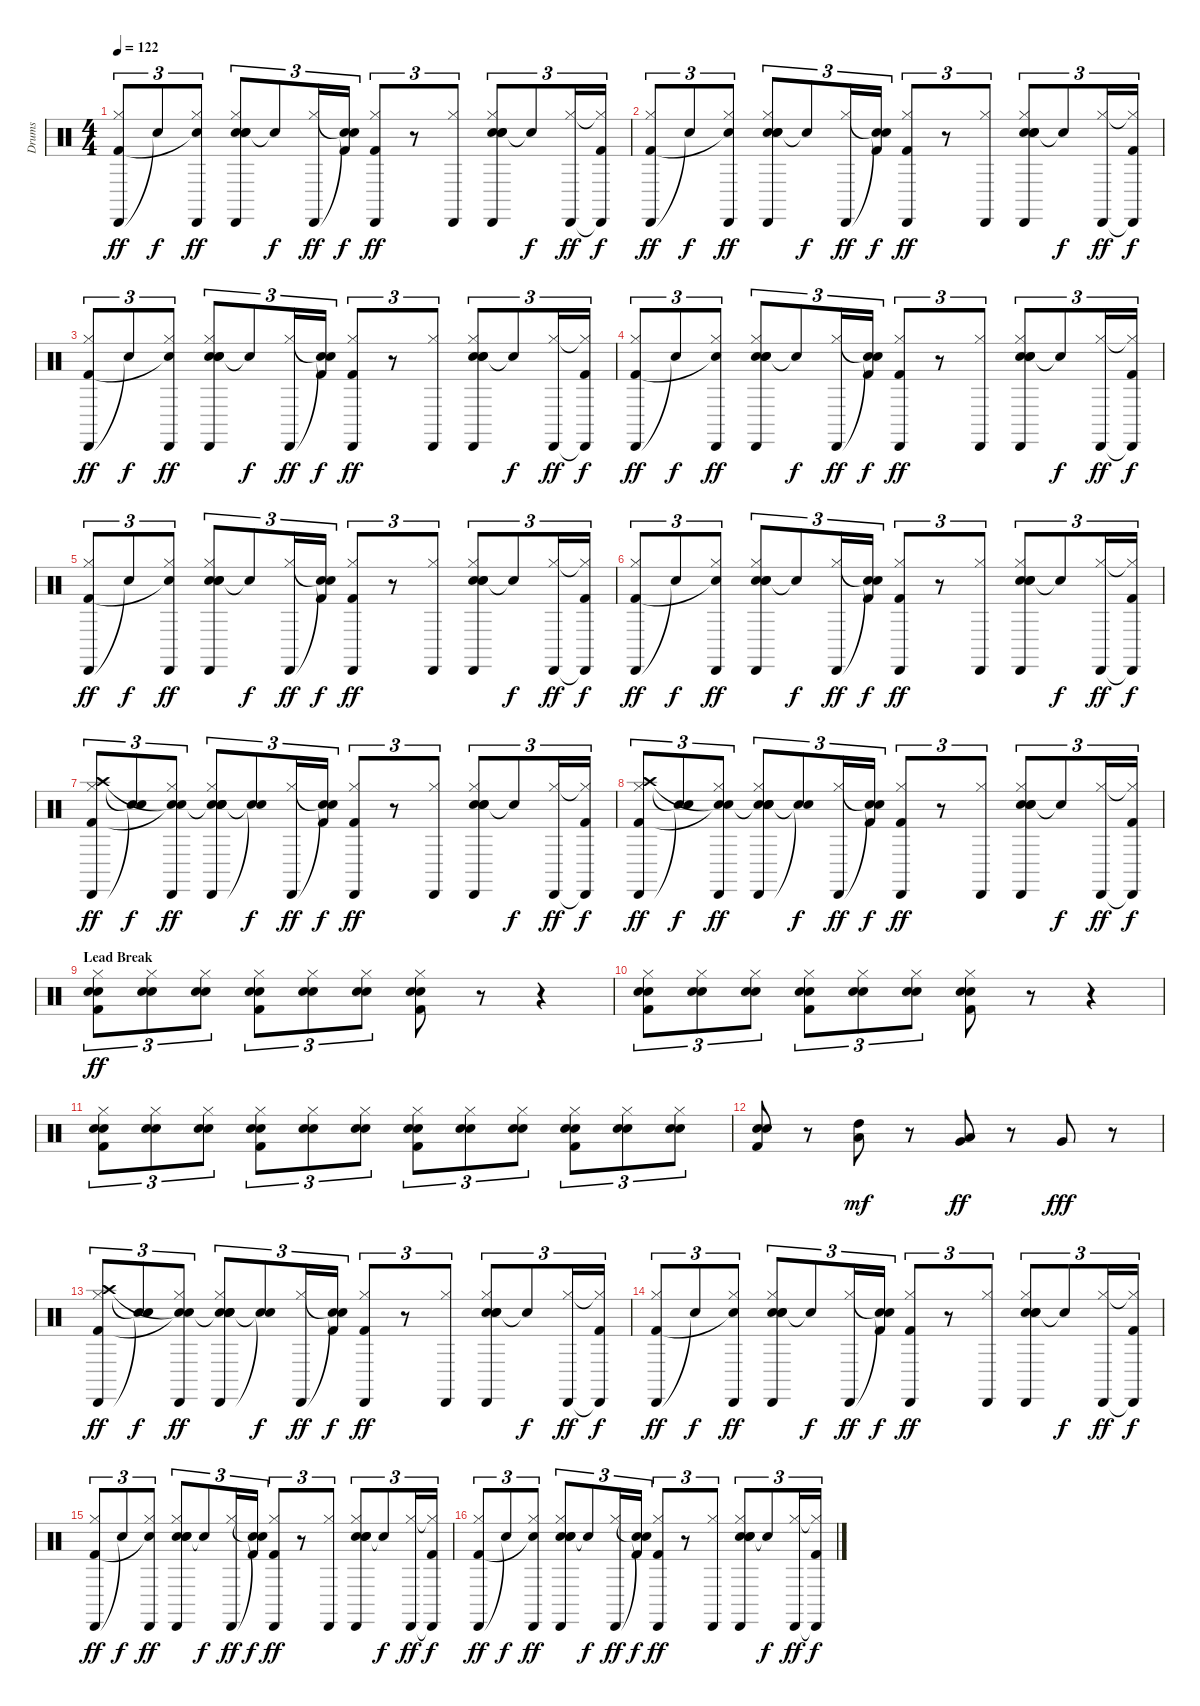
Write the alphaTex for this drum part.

\track ("Drums" "Drums") {instrument percussion}
\staff {score}
\articulation defaults
\ts (4 4)
\tempo 122
\clef neutral
\ks c
("Cabasa (hit)" "Hi-Hat (closed)" "Kick (hit) 2").8{tu (3 2) dy ff} "Snare (hit)"{t}.8{tu (3 2) dy f} ("Cabasa (hit)" "Hi-Hat (closed)" "Snare (hit)"{t}).8{tu (3 2) dy ff} ("Hand Clap (hit)" "Cabasa (hit)" "Hi-Hat (closed)" "Snare (hit) 2" "Hand Clap (hit)").8{tu (3 2)} "Snare (hit)"{t}.8{tu (3 2) dy f} ("Cabasa (hit)" "Hi-Hat (closed)").16{tu (3 2) dy ff} ("Snare (hit)"{t} "Snare (hit)"{t} "Kick (hit) 2").16{tu (3 2) dy f} ("Cabasa (hit)" "Hi-Hat (closed)" "Kick (hit) 2").8{tu (3 2) dy ff} r.8{tu (3 2)} ("Cabasa (hit)" "Hi-Hat (closed)").8{tu (3 2)} ("Hand Clap (hit)" "Cabasa (hit)" "Hi-Hat (closed)" "Snare (hit) 2" "Hand Clap (hit)").8{tu (3 2)} "Snare (hit)"{t}.8{tu (3 2) dy f} ("Cabasa (hit)" "Hi-Hat (closed)").16{tu (3 2) dy ff} ("Cabasa (hit)"{t} "Hi-Hat (closed)"{t} "Kick (hit) 2").16{tu (3 2) dy f} |
("Cabasa (hit)" "Hi-Hat (closed)" "Kick (hit) 2").8{tu (3 2) dy ff} "Snare (hit)"{t}.8{tu (3 2) dy f} ("Cabasa (hit)" "Hi-Hat (closed)" "Snare (hit)"{t}).8{tu (3 2) dy ff} ("Hand Clap (hit)" "Cabasa (hit)" "Hi-Hat (closed)" "Snare (hit) 2" "Hand Clap (hit)").8{tu (3 2)} "Snare (hit)"{t}.8{tu (3 2) dy f} ("Cabasa (hit)" "Hi-Hat (closed)").16{tu (3 2) dy ff} ("Snare (hit)"{t} "Snare (hit)"{t} "Kick (hit) 2").16{tu (3 2) dy f} ("Cabasa (hit)" "Hi-Hat (closed)" "Kick (hit) 2").8{tu (3 2) dy ff} r.8{tu (3 2)} ("Cabasa (hit)" "Hi-Hat (closed)").8{tu (3 2)} ("Hand Clap (hit)" "Cabasa (hit)" "Hi-Hat (closed)" "Snare (hit) 2" "Hand Clap (hit)").8{tu (3 2)} "Snare (hit)"{t}.8{tu (3 2) dy f} ("Cabasa (hit)" "Hi-Hat (closed)").16{tu (3 2) dy ff} ("Cabasa (hit)"{t} "Hi-Hat (closed)"{t} "Kick (hit) 2").16{tu (3 2) dy f} |
("Cabasa (hit)" "Hi-Hat (closed)" "Kick (hit) 2").8{tu (3 2) dy ff} "Snare (hit)"{t}.8{tu (3 2) dy f} ("Cabasa (hit)" "Hi-Hat (closed)" "Snare (hit)"{t}).8{tu (3 2) dy ff} ("Hand Clap (hit)" "Cabasa (hit)" "Hi-Hat (closed)" "Snare (hit) 2" "Hand Clap (hit)").8{tu (3 2)} "Snare (hit)"{t}.8{tu (3 2) dy f} ("Cabasa (hit)" "Hi-Hat (closed)").16{tu (3 2) dy ff} ("Snare (hit)"{t} "Snare (hit)"{t} "Kick (hit) 2").16{tu (3 2) dy f} ("Cabasa (hit)" "Hi-Hat (closed)" "Kick (hit) 2").8{tu (3 2) dy ff} r.8{tu (3 2)} ("Cabasa (hit)" "Hi-Hat (closed)").8{tu (3 2)} ("Hand Clap (hit)" "Cabasa (hit)" "Hi-Hat (closed)" "Snare (hit) 2" "Hand Clap (hit)").8{tu (3 2)} "Snare (hit)"{t}.8{tu (3 2) dy f} ("Cabasa (hit)" "Hi-Hat (closed)").16{tu (3 2) dy ff} ("Cabasa (hit)"{t} "Hi-Hat (closed)"{t} "Kick (hit) 2").16{tu (3 2) dy f} |
("Cabasa (hit)" "Hi-Hat (closed)" "Kick (hit) 2").8{tu (3 2) dy ff} "Snare (hit)"{t}.8{tu (3 2) dy f} ("Cabasa (hit)" "Hi-Hat (closed)" "Snare (hit)"{t}).8{tu (3 2) dy ff} ("Hand Clap (hit)" "Cabasa (hit)" "Hi-Hat (closed)" "Snare (hit) 2" "Hand Clap (hit)").8{tu (3 2)} "Snare (hit)"{t}.8{tu (3 2) dy f} ("Cabasa (hit)" "Hi-Hat (closed)").16{tu (3 2) dy ff} ("Snare (hit)"{t} "Snare (hit)"{t} "Kick (hit) 2").16{tu (3 2) dy f} ("Cabasa (hit)" "Hi-Hat (closed)" "Kick (hit) 2").8{tu (3 2) dy ff} r.8{tu (3 2)} ("Cabasa (hit)" "Hi-Hat (closed)").8{tu (3 2)} ("Hand Clap (hit)" "Cabasa (hit)" "Hi-Hat (closed)" "Snare (hit) 2" "Hand Clap (hit)").8{tu (3 2)} "Snare (hit)"{t}.8{tu (3 2) dy f} ("Cabasa (hit)" "Hi-Hat (closed)").16{tu (3 2) dy ff} ("Cabasa (hit)"{t} "Hi-Hat (closed)"{t} "Kick (hit) 2").16{tu (3 2) dy f} |
("Cabasa (hit)" "Hi-Hat (closed)" "Kick (hit) 2").8{tu (3 2) dy ff} "Snare (hit)"{t}.8{tu (3 2) dy f} ("Cabasa (hit)" "Hi-Hat (closed)" "Snare (hit)"{t}).8{tu (3 2) dy ff} ("Hand Clap (hit)" "Cabasa (hit)" "Hi-Hat (closed)" "Snare (hit) 2" "Hand Clap (hit)").8{tu (3 2)} "Snare (hit)"{t}.8{tu (3 2) dy f} ("Cabasa (hit)" "Hi-Hat (closed)").16{tu (3 2) dy ff} ("Snare (hit)"{t} "Snare (hit)"{t} "Kick (hit) 2").16{tu (3 2) dy f} ("Cabasa (hit)" "Hi-Hat (closed)" "Kick (hit) 2").8{tu (3 2) dy ff} r.8{tu (3 2)} ("Cabasa (hit)" "Hi-Hat (closed)").8{tu (3 2)} ("Hand Clap (hit)" "Cabasa (hit)" "Hi-Hat (closed)" "Snare (hit) 2" "Hand Clap (hit)").8{tu (3 2)} "Snare (hit)"{t}.8{tu (3 2) dy f} ("Cabasa (hit)" "Hi-Hat (closed)").16{tu (3 2) dy ff} ("Cabasa (hit)"{t} "Hi-Hat (closed)"{t} "Kick (hit) 2").16{tu (3 2) dy f} |
("Cabasa (hit)" "Hi-Hat (closed)" "Kick (hit) 2").8{tu (3 2) dy ff} "Snare (hit)"{t}.8{tu (3 2) dy f} ("Cabasa (hit)" "Hi-Hat (closed)" "Snare (hit)"{t}).8{tu (3 2) dy ff} ("Hand Clap (hit)" "Cabasa (hit)" "Hi-Hat (closed)" "Snare (hit) 2" "Hand Clap (hit)").8{tu (3 2)} "Snare (hit)"{t}.8{tu (3 2) dy f} ("Cabasa (hit)" "Hi-Hat (closed)").16{tu (3 2) dy ff} ("Snare (hit)"{t} "Snare (hit)"{t} "Kick (hit) 2").16{tu (3 2) dy f} ("Cabasa (hit)" "Hi-Hat (closed)" "Kick (hit) 2").8{tu (3 2) dy ff} r.8{tu (3 2)} ("Cabasa (hit)" "Hi-Hat (closed)").8{tu (3 2)} ("Hand Clap (hit)" "Cabasa (hit)" "Hi-Hat (closed)" "Snare (hit) 2" "Hand Clap (hit)").8{tu (3 2)} "Snare (hit)"{t}.8{tu (3 2) dy f} ("Cabasa (hit)" "Hi-Hat (closed)").16{tu (3 2) dy ff} ("Cabasa (hit)"{t} "Hi-Hat (closed)"{t} "Kick (hit) 2").16{tu (3 2) dy f} |
("Cabasa (hit)" "Hi-Hat (closed)" "Crash high (hit)" "Kick (hit) 2").8{tu (3 2) dy ff} ("Snare (hit)"{t} "Snare (hit)"{t}).8{tu (3 2) dy f} ("Cabasa (hit)" "Hi-Hat (closed)" "Snare (hit)"{t} "Snare (hit)"{t}).8{tu (3 2) dy ff} ("Hand Clap (hit)" "Cabasa (hit)" "Hi-Hat (closed)" "Snare (hit)"{t} "Snare (hit) 2" "Hand Clap (hit)").8{tu (3 2)} ("Snare (hit)"{t} "Snare (hit)"{t}).8{tu (3 2) dy f} ("Cabasa (hit)" "Hi-Hat (closed)").16{tu (3 2) dy ff} ("Snare (hit)"{t} "Snare (hit)"{t} "Kick (hit) 2").16{tu (3 2) dy f} ("Cabasa (hit)" "Hi-Hat (closed)" "Kick (hit) 2").8{tu (3 2) dy ff} r.8{tu (3 2)} ("Cabasa (hit)" "Hi-Hat (closed)").8{tu (3 2)} ("Hand Clap (hit)" "Cabasa (hit)" "Hi-Hat (closed)" "Snare (hit) 2" "Hand Clap (hit)").8{tu (3 2)} "Snare (hit)"{t}.8{tu (3 2) dy f} ("Cabasa (hit)" "Hi-Hat (closed)").16{tu (3 2) dy ff} ("Cabasa (hit)"{t} "Hi-Hat (closed)"{t} "Kick (hit) 2").16{tu (3 2) dy f} |
("Cabasa (hit)" "Hi-Hat (closed)" "Crash high (hit)" "Kick (hit) 2").8{tu (3 2) dy ff} ("Snare (hit)"{t} "Snare (hit)"{t}).8{tu (3 2) dy f} ("Cabasa (hit)" "Hi-Hat (closed)" "Snare (hit)"{t} "Snare (hit)"{t}).8{tu (3 2) dy ff} ("Hand Clap (hit)" "Cabasa (hit)" "Hi-Hat (closed)" "Snare (hit)"{t} "Snare (hit) 2" "Hand Clap (hit)").8{tu (3 2)} ("Snare (hit)"{t} "Snare (hit)"{t}).8{tu (3 2) dy f} ("Cabasa (hit)" "Hi-Hat (closed)").16{tu (3 2) dy ff} ("Snare (hit)"{t} "Snare (hit)"{t} "Kick (hit) 2").16{tu (3 2) dy f} ("Cabasa (hit)" "Hi-Hat (closed)" "Kick (hit) 2").8{tu (3 2) dy ff} r.8{tu (3 2)} ("Cabasa (hit)" "Hi-Hat (closed)").8{tu (3 2)} ("Hand Clap (hit)" "Cabasa (hit)" "Hi-Hat (closed)" "Snare (hit) 2" "Hand Clap (hit)").8{tu (3 2)} "Snare (hit)"{t}.8{tu (3 2) dy f} ("Cabasa (hit)" "Hi-Hat (closed)").16{tu (3 2) dy ff} ("Cabasa (hit)"{t} "Hi-Hat (closed)"{t} "Kick (hit) 2").16{tu (3 2) dy f} |
\section ("" "Lead Break")
("Hand Clap (hit)" "Hi-Hat (closed)" "Snare (hit) 2" "Kick (hit) 2").8{tu (3 2) dy ff} ("Hand Clap (hit)" "Hi-Hat (closed)" "Snare (hit) 2").8{tu (3 2)} ("Hand Clap (hit)" "Hi-Hat (closed)" "Snare (hit) 2").8{tu (3 2)} ("Hand Clap (hit)" "Hi-Hat (closed)" "Snare (hit) 2" "Kick (hit) 2").8{tu (3 2)} ("Hand Clap (hit)" "Hi-Hat (closed)" "Snare (hit) 2").8{tu (3 2)} ("Hand Clap (hit)" "Hi-Hat (closed)" "Snare (hit) 2").8{tu (3 2)} ("Hand Clap (hit)" "Hi-Hat (closed)" "Snare (hit) 2" "Kick (hit) 2").8 r.8 r.4 |
("Hand Clap (hit)" "Hi-Hat (closed)" "Snare (hit) 2" "Kick (hit) 2").8{tu (3 2)} ("Hand Clap (hit)" "Hi-Hat (closed)" "Snare (hit) 2").8{tu (3 2)} ("Hand Clap (hit)" "Hi-Hat (closed)" "Snare (hit) 2").8{tu (3 2)} ("Hand Clap (hit)" "Hi-Hat (closed)" "Snare (hit) 2" "Kick (hit) 2").8{tu (3 2)} ("Hand Clap (hit)" "Hi-Hat (closed)" "Snare (hit) 2").8{tu (3 2)} ("Hand Clap (hit)" "Hi-Hat (closed)" "Snare (hit) 2").8{tu (3 2)} ("Hand Clap (hit)" "Hi-Hat (closed)" "Snare (hit) 2" "Kick (hit) 2").8 r.8 r.4 |
("Hand Clap (hit)" "Hi-Hat (closed)" "Snare (hit) 2" "Kick (hit) 2").8{tu (3 2)} ("Hand Clap (hit)" "Hi-Hat (closed)" "Snare (hit) 2").8{tu (3 2)} ("Hand Clap (hit)" "Hi-Hat (closed)" "Snare (hit) 2").8{tu (3 2)} ("Hand Clap (hit)" "Hi-Hat (closed)" "Snare (hit) 2" "Kick (hit) 2").8{tu (3 2)} ("Hand Clap (hit)" "Hi-Hat (closed)" "Snare (hit) 2").8{tu (3 2)} ("Hand Clap (hit)" "Hi-Hat (closed)" "Snare (hit) 2").8{tu (3 2)} ("Hand Clap (hit)" "Hi-Hat (closed)" "Snare (hit) 2" "Kick (hit) 2").8{tu (3 2)} ("Hand Clap (hit)" "Hi-Hat (closed)" "Snare (hit) 2").8{tu (3 2)} ("Hand Clap (hit)" "Hi-Hat (closed)" "Snare (hit) 2").8{tu (3 2)} ("Hand Clap (hit)" "Hi-Hat (closed)" "Snare (hit) 2" "Kick (hit) 2").8{tu (3 2)} ("Hand Clap (hit)" "Hi-Hat (closed)" "Snare (hit) 2").8{tu (3 2)} ("Hand Clap (hit)" "Hi-Hat (closed)" "Snare (hit) 2").8{tu (3 2)} |
("Hand Clap (hit)" "Snare (hit) 2" "Kick (hit) 2").8 r.8 ("High Tom (hit)" "Low Tom (hit)").8{dy mf} r.8 ("Low Tom (hit)" "Very Low Tom (hit)").8{dy ff} r.8 "Very Low Tom (hit)".8{dy fff} r.8 |
("Cabasa (hit)" "Hi-Hat (closed)" "Crash high (hit)" "Kick (hit) 2").8{tu (3 2) dy ff} ("Snare (hit)"{t} "Snare (hit)"{t}).8{tu (3 2) dy f} ("Cabasa (hit)" "Hi-Hat (closed)" "Snare (hit)"{t} "Snare (hit)"{t}).8{tu (3 2) dy ff} ("Hand Clap (hit)" "Cabasa (hit)" "Hi-Hat (closed)" "Snare (hit)"{t} "Snare (hit) 2" "Hand Clap (hit)").8{tu (3 2)} ("Snare (hit)"{t} "Snare (hit)"{t}).8{tu (3 2) dy f} ("Cabasa (hit)" "Hi-Hat (closed)").16{tu (3 2) dy ff} ("Snare (hit)"{t} "Snare (hit)"{t} "Kick (hit) 2").16{tu (3 2) dy f} ("Cabasa (hit)" "Hi-Hat (closed)" "Kick (hit) 2").8{tu (3 2) dy ff} r.8{tu (3 2)} ("Cabasa (hit)" "Hi-Hat (closed)").8{tu (3 2)} ("Hand Clap (hit)" "Cabasa (hit)" "Hi-Hat (closed)" "Snare (hit) 2" "Hand Clap (hit)").8{tu (3 2)} "Snare (hit)"{t}.8{tu (3 2) dy f} ("Cabasa (hit)" "Hi-Hat (closed)").16{tu (3 2) dy ff} ("Cabasa (hit)"{t} "Hi-Hat (closed)"{t} "Kick (hit) 2").16{tu (3 2) dy f} |
("Cabasa (hit)" "Hi-Hat (closed)" "Kick (hit) 2").8{tu (3 2) dy ff} "Snare (hit)"{t}.8{tu (3 2) dy f} ("Cabasa (hit)" "Hi-Hat (closed)" "Snare (hit)"{t}).8{tu (3 2) dy ff} ("Hand Clap (hit)" "Cabasa (hit)" "Hi-Hat (closed)" "Snare (hit) 2" "Hand Clap (hit)").8{tu (3 2)} "Snare (hit)"{t}.8{tu (3 2) dy f} ("Cabasa (hit)" "Hi-Hat (closed)").16{tu (3 2) dy ff} ("Snare (hit)"{t} "Snare (hit)"{t} "Kick (hit) 2").16{tu (3 2) dy f} ("Cabasa (hit)" "Hi-Hat (closed)" "Kick (hit) 2").8{tu (3 2) dy ff} r.8{tu (3 2)} ("Cabasa (hit)" "Hi-Hat (closed)").8{tu (3 2)} ("Hand Clap (hit)" "Cabasa (hit)" "Hi-Hat (closed)" "Snare (hit) 2" "Hand Clap (hit)").8{tu (3 2)} "Snare (hit)"{t}.8{tu (3 2) dy f} ("Cabasa (hit)" "Hi-Hat (closed)").16{tu (3 2) dy ff} ("Cabasa (hit)"{t} "Hi-Hat (closed)"{t} "Kick (hit) 2").16{tu (3 2) dy f} |
("Cabasa (hit)" "Hi-Hat (closed)" "Kick (hit) 2").8{tu (3 2) dy ff} "Snare (hit)"{t}.8{tu (3 2) dy f} ("Cabasa (hit)" "Hi-Hat (closed)" "Snare (hit)"{t}).8{tu (3 2) dy ff} ("Hand Clap (hit)" "Cabasa (hit)" "Hi-Hat (closed)" "Snare (hit) 2" "Hand Clap (hit)").8{tu (3 2)} "Snare (hit)"{t}.8{tu (3 2) dy f} ("Cabasa (hit)" "Hi-Hat (closed)").16{tu (3 2) dy ff} ("Snare (hit)"{t} "Snare (hit)"{t} "Kick (hit) 2").16{tu (3 2) dy f} ("Cabasa (hit)" "Hi-Hat (closed)" "Kick (hit) 2").8{tu (3 2) dy ff} r.8{tu (3 2)} ("Cabasa (hit)" "Hi-Hat (closed)").8{tu (3 2)} ("Hand Clap (hit)" "Cabasa (hit)" "Hi-Hat (closed)" "Snare (hit) 2" "Hand Clap (hit)").8{tu (3 2)} "Snare (hit)"{t}.8{tu (3 2) dy f} ("Cabasa (hit)" "Hi-Hat (closed)").16{tu (3 2) dy ff} ("Cabasa (hit)"{t} "Hi-Hat (closed)"{t} "Kick (hit) 2").16{tu (3 2) dy f} |
("Cabasa (hit)" "Hi-Hat (closed)" "Kick (hit) 2").8{tu (3 2) dy ff} "Snare (hit)"{t}.8{tu (3 2) dy f} ("Cabasa (hit)" "Hi-Hat (closed)" "Snare (hit)"{t}).8{tu (3 2) dy ff} ("Hand Clap (hit)" "Cabasa (hit)" "Hi-Hat (closed)" "Snare (hit) 2" "Hand Clap (hit)").8{tu (3 2)} "Snare (hit)"{t}.8{tu (3 2) dy f} ("Cabasa (hit)" "Hi-Hat (closed)").16{tu (3 2) dy ff} ("Snare (hit)"{t} "Snare (hit)"{t} "Kick (hit) 2").16{tu (3 2) dy f} ("Cabasa (hit)" "Hi-Hat (closed)" "Kick (hit) 2").8{tu (3 2) dy ff} r.8{tu (3 2)} ("Cabasa (hit)" "Hi-Hat (closed)").8{tu (3 2)} ("Hand Clap (hit)" "Cabasa (hit)" "Hi-Hat (closed)" "Snare (hit) 2" "Hand Clap (hit)").8{tu (3 2)} "Snare (hit)"{t}.8{tu (3 2) dy f} ("Cabasa (hit)" "Hi-Hat (closed)").16{tu (3 2) dy ff} ("Cabasa (hit)"{t} "Hi-Hat (closed)"{t} "Kick (hit) 2").16{tu (3 2) dy f}
